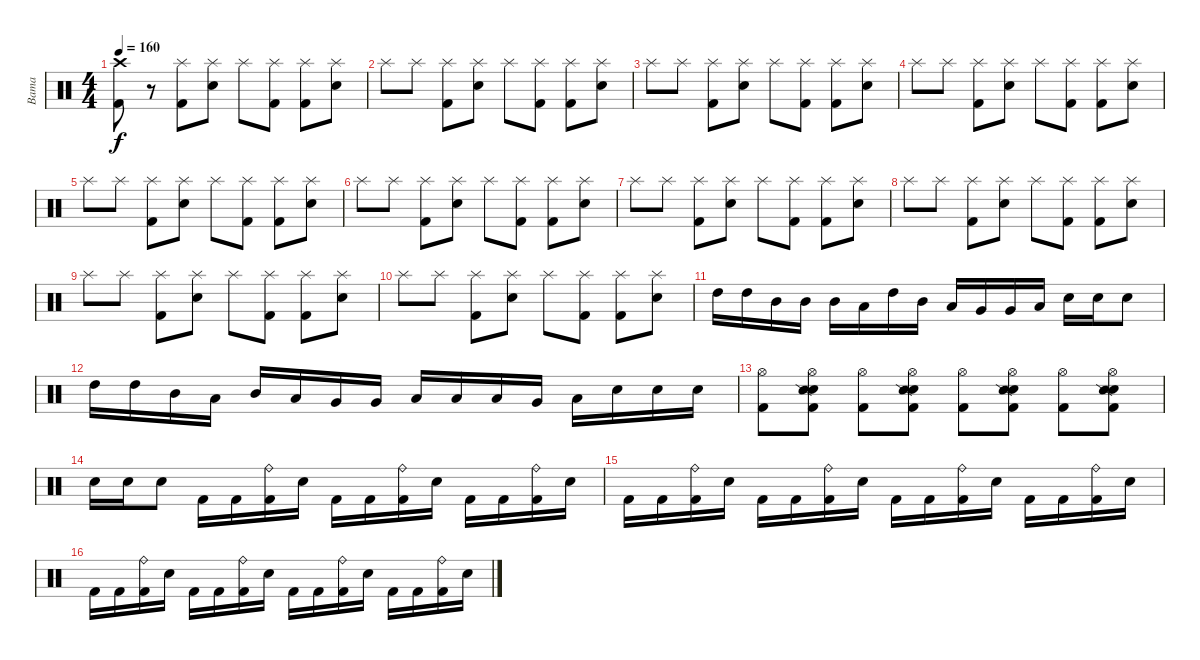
\track ("Bama" "Bama") {instrument percussion}
\staff {score}
\articulation defaults
\ts (4 4)
\tempo 160
\clef neutral
\ks c
("Crash high (hit)" "Kick (hit) 2").8{dy f} r.8 ("Splash (hit)" "Kick (hit) 2").8 ("Splash (hit)" "Electric Snare (hit)").8 "Splash (hit)".8 ("Splash (hit)" "Kick (hit) 2").8 ("Splash (hit)" "Kick (hit) 2").8 ("Splash (hit)" "Electric Snare (hit)").8 |
"Splash (hit)".8 "Splash (hit)".8 ("Splash (hit)" "Kick (hit) 2").8 ("Splash (hit)" "Electric Snare (hit)").8 "Splash (hit)".8 ("Splash (hit)" "Kick (hit) 2").8 ("Splash (hit)" "Kick (hit) 2").8 ("Splash (hit)" "Electric Snare (hit)").8 |
"Splash (hit)".8 "Splash (hit)".8 ("Splash (hit)" "Kick (hit) 2").8 ("Splash (hit)" "Electric Snare (hit)").8 "Splash (hit)".8 ("Splash (hit)" "Kick (hit) 2").8 ("Splash (hit)" "Kick (hit) 2").8 ("Splash (hit)" "Electric Snare (hit)").8 |
"Splash (hit)".8 "Splash (hit)".8 ("Splash (hit)" "Kick (hit) 2").8 ("Splash (hit)" "Electric Snare (hit)").8 "Splash (hit)".8 ("Splash (hit)" "Kick (hit) 2").8 ("Splash (hit)" "Kick (hit) 2").8 ("Splash (hit)" "Electric Snare (hit)").8 |
"Splash (hit)".8 "Splash (hit)".8 ("Splash (hit)" "Kick (hit) 2").8 ("Splash (hit)" "Electric Snare (hit)").8 "Splash (hit)".8 ("Splash (hit)" "Kick (hit) 2").8 ("Splash (hit)" "Kick (hit) 2").8 ("Splash (hit)" "Electric Snare (hit)").8 |
"Splash (hit)".8 "Splash (hit)".8 ("Splash (hit)" "Kick (hit) 2").8 ("Splash (hit)" "Electric Snare (hit)").8 "Splash (hit)".8 ("Splash (hit)" "Kick (hit) 2").8 ("Splash (hit)" "Kick (hit) 2").8 ("Splash (hit)" "Electric Snare (hit)").8 |
"Splash (hit)".8 "Splash (hit)".8 ("Splash (hit)" "Kick (hit) 2").8 ("Splash (hit)" "Electric Snare (hit)").8 "Splash (hit)".8 ("Splash (hit)" "Kick (hit) 2").8 ("Splash (hit)" "Kick (hit) 2").8 ("Splash (hit)" "Electric Snare (hit)").8 |
"Splash (hit)".8 "Splash (hit)".8 ("Splash (hit)" "Kick (hit) 2").8 ("Splash (hit)" "Electric Snare (hit)").8 "Splash (hit)".8 ("Splash (hit)" "Kick (hit) 2").8 ("Splash (hit)" "Kick (hit) 2").8 ("Splash (hit)" "Electric Snare (hit)").8 |
"Splash (hit)".8 "Splash (hit)".8 ("Splash (hit)" "Kick (hit) 2").8 ("Splash (hit)" "Electric Snare (hit)").8 "Splash (hit)".8 ("Splash (hit)" "Kick (hit) 2").8 ("Splash (hit)" "Kick (hit) 2").8 ("Splash (hit)" "Electric Snare (hit)").8 |
"Splash (hit)".8 "Splash (hit)".8 ("Splash (hit)" "Kick (hit) 2").8 ("Splash (hit)" "Electric Snare (hit)").8 "Splash (hit)".8 ("Splash (hit)" "Kick (hit) 2").8 ("Splash (hit)" "Kick (hit) 2").8 ("Splash (hit)" "Electric Snare (hit)").8 |
"High Tom (hit)".16 "High Tom (hit)".16 "Mid Tom (hit)".16 "Mid Tom (hit)".16 "Mid Tom (hit)".16 "Low Tom (hit)".16 "High Tom (hit)".16 "Mid Tom (hit)".16 "Low Tom (hit)".16 "Very Low Tom (hit)".16 "Very Low Tom (hit)".16 "Low Floor Tom (hit)".16 "Electric Snare (hit)".16 "Electric Snare (hit)".16 "Electric Snare (hit)".8 |
"High Tom (hit)".16 "High Tom (hit)".16 "Mid Tom (hit)".16 "Low Tom (hit)".16 "Mid Tom (hit)".16 "Low Tom (hit)".16 "Very Low Tom (hit)".16 "Very Low Tom (hit)".16 "Low Floor Tom (hit)".16 "Low Floor Tom (hit)".16 "Low Tom (hit)".16 "Very Low Tom (hit)".16 "Low Floor Tom (hit)".16 "Electric Snare (hit)".16 "Electric Snare (hit)".16 "Electric Snare (hit)".16 |
("Hi-Hat (open)" "Kick (hit) 2").8 ("Hi-Hat (open)" "Electric Snare (hit)" "Snare (side stick) 2" "Kick (hit) 2").8 ("Hi-Hat (open)" "Kick (hit) 2").8 ("Hi-Hat (open)" "Electric Snare (hit)" "Snare (side stick) 2" "Kick (hit) 2").8 ("Hi-Hat (open)" "Kick (hit) 2").8 ("Hi-Hat (open)" "Electric Snare (hit)" "Snare (side stick) 2" "Kick (hit) 2").8 ("Hi-Hat (open)" "Kick (hit) 2").8 ("Hi-Hat (open)" "Electric Snare (hit)" "Snare (side stick) 2" "Kick (hit) 2").8 |
"Electric Snare (hit)".16 "Electric Snare (hit)".16 "Electric Snare (hit)".8 "Kick (hit) 2".16 "Kick (hit) 2".16 ("Ride (bell)" "Kick (hit) 2").16 "Electric Snare (hit)".16 "Kick (hit) 2".16 "Kick (hit) 2".16 ("Ride (bell)" "Kick (hit) 2").16 "Electric Snare (hit)".16 "Kick (hit) 2".16 "Kick (hit) 2".16 ("Ride (bell)" "Kick (hit) 2").16 "Electric Snare (hit)".16 |
"Kick (hit) 2".16 "Kick (hit) 2".16 ("Ride (bell)" "Kick (hit) 2").16 "Electric Snare (hit)".16 "Kick (hit) 2".16 "Kick (hit) 2".16 ("Ride (bell)" "Kick (hit) 2").16 "Electric Snare (hit)".16 "Kick (hit) 2".16 "Kick (hit) 2".16 ("Ride (bell)" "Kick (hit) 2").16 "Electric Snare (hit)".16 "Kick (hit) 2".16 "Kick (hit) 2".16 ("Ride (bell)" "Kick (hit) 2").16 "Electric Snare (hit)".16 |
"Kick (hit) 2".16 "Kick (hit) 2".16 ("Ride (bell)" "Kick (hit) 2").16 "Electric Snare (hit)".16 "Kick (hit) 2".16 "Kick (hit) 2".16 ("Ride (bell)" "Kick (hit) 2").16 "Electric Snare (hit)".16 "Kick (hit) 2".16 "Kick (hit) 2".16 ("Ride (bell)" "Kick (hit) 2").16 "Electric Snare (hit)".16 "Kick (hit) 2".16 "Kick (hit) 2".16 ("Ride (bell)" "Kick (hit) 2").16 "Electric Snare (hit)".16
